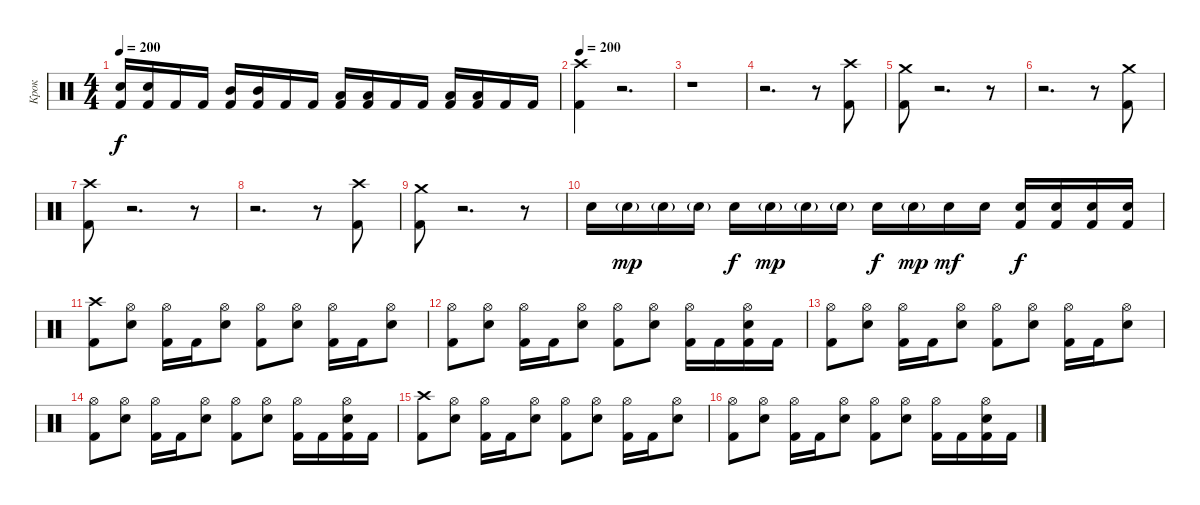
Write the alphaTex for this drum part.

\track ("Крок" "Крок") {instrument percussion}
\staff {score}
\articulation defaults
\ts (4 4)
\tempo 200
\clef neutral
\ks c
("Electric Snare (hit)" "Kick (hit) 2").16{dy f} ("Electric Snare (hit)" "Kick (hit) 2").16 "Kick (hit) 2".16 "Kick (hit) 2".16 ("Mid Tom (hit)" "Kick (hit) 2").16 ("Mid Tom (hit)" "Kick (hit) 2").16 "Kick (hit) 2".16 "Kick (hit) 2".16 ("Low Tom (hit)" "Kick (hit) 2").16 ("Low Tom (hit)" "Kick (hit) 2").16 "Kick (hit) 2".16 "Kick (hit) 2".16 ("Low Floor Tom (hit)" "Kick (hit) 2").16 ("Low Floor Tom (hit)" "Kick (hit) 2").16 "Kick (hit) 2".16 "Kick (hit) 2".16 |
\tempo 200
("Crash high (hit)" "Kick (hit) 2").4 r.2{d} |
r.1 |
r.2{d} r.8 ("Crash high (hit)" "Kick (hit) 2").8 |
("Crash medium (hit)" "Kick (hit) 2").8 r.2{d} r.8 |
r.2{d} r.8 ("Crash medium (hit)" "Kick (hit) 2").8 |
("Crash high (hit)" "Kick (hit) 2").8 r.2{d} r.8 |
r.2{d} r.8 ("Crash high (hit)" "Kick (hit) 2").8 |
("Crash medium (hit)" "Kick (hit) 2").8 r.2{d} r.8 |
"Electric Snare (hit)".16 "Electric Snare (hit)"{g}.16{dy mp} "Electric Snare (hit)"{g}.16 "Electric Snare (hit)"{g}.16 "Electric Snare (hit)".16{dy f} "Electric Snare (hit)"{g}.16{dy mp} "Electric Snare (hit)"{g}.16 "Electric Snare (hit)"{g}.16 "Electric Snare (hit)".16{dy f} "Electric Snare (hit)"{g}.16{dy mp} "Electric Snare (hit)".16{dy mf} "Electric Snare (hit)".16 ("Electric Snare (hit)" "Kick (hit) 2").16{dy f} ("Electric Snare (hit)" "Kick (hit) 2").16 ("Electric Snare (hit)" "Kick (hit) 2").16 ("Electric Snare (hit)" "Kick (hit) 2").16 |
("Crash high (hit)" "Kick (hit) 2").8 ("Hi-Hat (open)" "Electric Snare (hit)").8 ("Hi-Hat (open)" "Kick (hit) 2").16 "Kick (hit) 2".16 ("Hi-Hat (open)" "Electric Snare (hit)").8 ("Hi-Hat (open)" "Kick (hit) 2").8 ("Hi-Hat (open)" "Electric Snare (hit)").8 ("Hi-Hat (open)" "Kick (hit) 2").16 "Kick (hit) 2".16 ("Hi-Hat (open)" "Electric Snare (hit)").8 |
("Hi-Hat (open)" "Kick (hit) 2").8 ("Hi-Hat (open)" "Electric Snare (hit)").8 ("Hi-Hat (open)" "Kick (hit) 2").16 "Kick (hit) 2".16 ("Hi-Hat (open)" "Electric Snare (hit)").8 ("Hi-Hat (open)" "Kick (hit) 2").8 ("Hi-Hat (open)" "Electric Snare (hit)").8 ("Hi-Hat (open)" "Kick (hit) 2").16 "Kick (hit) 2".16 ("Hi-Hat (open)" "Kick (hit) 2" "Electric Snare (hit)").16 "Kick (hit) 2".16 |
("Hi-Hat (open)" "Kick (hit) 2").8 ("Hi-Hat (open)" "Electric Snare (hit)").8 ("Hi-Hat (open)" "Kick (hit) 2").16 "Kick (hit) 2".16 ("Hi-Hat (open)" "Electric Snare (hit)").8 ("Hi-Hat (open)" "Kick (hit) 2").8 ("Hi-Hat (open)" "Electric Snare (hit)").8 ("Hi-Hat (open)" "Kick (hit) 2").16 "Kick (hit) 2".16 ("Hi-Hat (open)" "Electric Snare (hit)").8 |
("Hi-Hat (open)" "Kick (hit) 2").8 ("Hi-Hat (open)" "Electric Snare (hit)").8 ("Hi-Hat (open)" "Kick (hit) 2").16 "Kick (hit) 2".16 ("Hi-Hat (open)" "Electric Snare (hit)").8 ("Hi-Hat (open)" "Kick (hit) 2").8 ("Hi-Hat (open)" "Electric Snare (hit)").8 ("Hi-Hat (open)" "Kick (hit) 2").16 "Kick (hit) 2".16 ("Hi-Hat (open)" "Kick (hit) 2" "Electric Snare (hit)").16 "Kick (hit) 2".16 |
("Crash high (hit)" "Kick (hit) 2").8 ("Hi-Hat (open)" "Electric Snare (hit)").8 ("Hi-Hat (open)" "Kick (hit) 2").16 "Kick (hit) 2".16 ("Hi-Hat (open)" "Electric Snare (hit)").8 ("Hi-Hat (open)" "Kick (hit) 2").8 ("Hi-Hat (open)" "Electric Snare (hit)").8 ("Hi-Hat (open)" "Kick (hit) 2").16 "Kick (hit) 2".16 ("Hi-Hat (open)" "Electric Snare (hit)").8 |
("Hi-Hat (open)" "Kick (hit) 2").8 ("Hi-Hat (open)" "Electric Snare (hit)").8 ("Hi-Hat (open)" "Kick (hit) 2").16 "Kick (hit) 2".16 ("Hi-Hat (open)" "Electric Snare (hit)").8 ("Hi-Hat (open)" "Kick (hit) 2").8 ("Hi-Hat (open)" "Electric Snare (hit)").8 ("Hi-Hat (open)" "Kick (hit) 2").16 "Kick (hit) 2".16 ("Hi-Hat (open)" "Kick (hit) 2" "Electric Snare (hit)").16 "Kick (hit) 2".16
